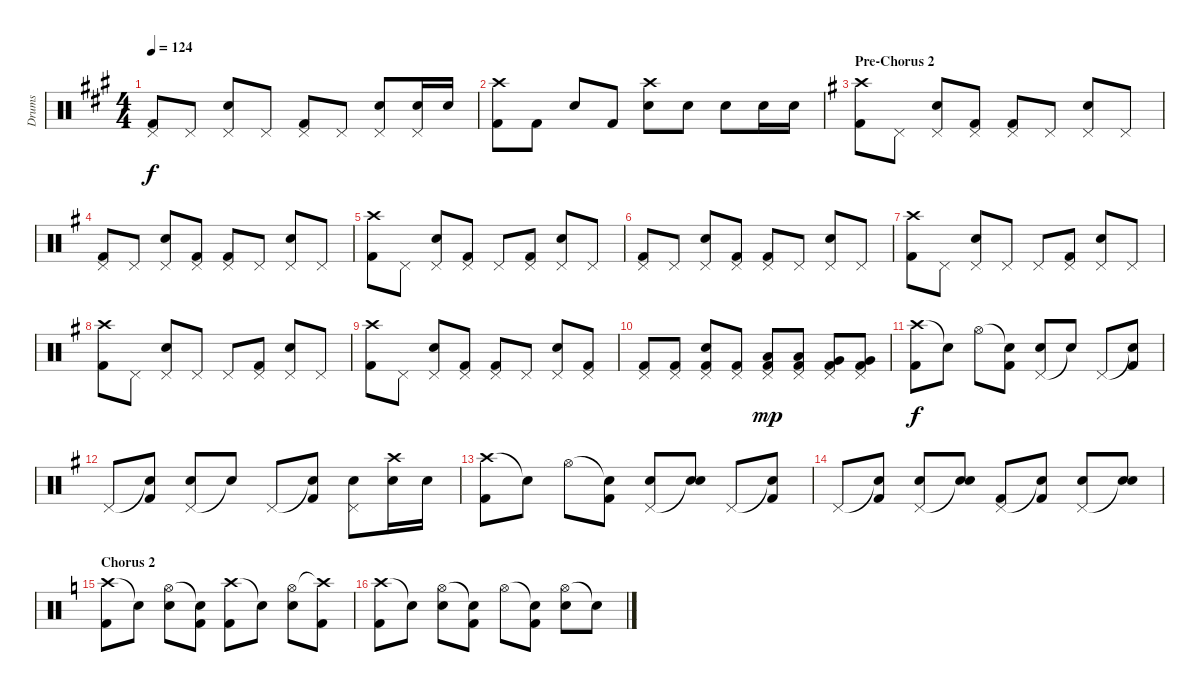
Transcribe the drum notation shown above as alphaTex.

\track ("Drums" "Drums") {instrument percussion}
\staff {score}
\articulation defaults
\ts (4 4)
\tempo 124
\clef neutral
\ks a
("Pedal Hi-Hat (hit)" "Kick (hit) 2").8{dy f} "Pedal Hi-Hat (hit)".8 ("Pedal Hi-Hat (hit)" "Electric Snare (hit)").8 "Pedal Hi-Hat (hit)".8 ("Pedal Hi-Hat (hit)" "Kick (hit) 2").8 "Pedal Hi-Hat (hit)".8 ("Pedal Hi-Hat (hit)" "Electric Snare (hit)").8 ("Pedal Hi-Hat (hit)" "Electric Snare (hit)").16 "Electric Snare (hit)".16 |
("Crash high (hit)" "Kick (hit) 2").8 "Kick (hit) 2".8 "Electric Snare (hit)".8 "Kick (hit) 2".8 ("Crash high (hit)" "Electric Snare (hit)").8 "Electric Snare (hit)".8 "Electric Snare (hit)".8 "Electric Snare (hit)".16 "Electric Snare (hit)".16 |
\section ("" "Pre-Chorus 2")
\ks g
("Crash high (hit)" "Kick (hit) 2").8 "Pedal Hi-Hat (hit)".8 ("Pedal Hi-Hat (hit)" "Electric Snare (hit)").8 ("Pedal Hi-Hat (hit)" "Kick (hit) 2").8 ("Pedal Hi-Hat (hit)" "Kick (hit) 2").8 "Pedal Hi-Hat (hit)".8 ("Pedal Hi-Hat (hit)" "Electric Snare (hit)").8 "Pedal Hi-Hat (hit)".8 |
("Pedal Hi-Hat (hit)" "Kick (hit) 2").8 "Pedal Hi-Hat (hit)".8 ("Pedal Hi-Hat (hit)" "Electric Snare (hit)").8 ("Pedal Hi-Hat (hit)" "Kick (hit) 2").8 ("Pedal Hi-Hat (hit)" "Kick (hit) 2").8 "Pedal Hi-Hat (hit)".8 ("Pedal Hi-Hat (hit)" "Electric Snare (hit)").8 "Pedal Hi-Hat (hit)".8 |
("Crash high (hit)" "Kick (hit) 2").8 "Pedal Hi-Hat (hit)".8 ("Pedal Hi-Hat (hit)" "Electric Snare (hit)").8 ("Pedal Hi-Hat (hit)" "Kick (hit) 2").8 "Pedal Hi-Hat (hit)".8 ("Pedal Hi-Hat (hit)" "Kick (hit) 2").8 ("Pedal Hi-Hat (hit)" "Electric Snare (hit)").8 "Pedal Hi-Hat (hit)".8 |
("Pedal Hi-Hat (hit)" "Kick (hit) 2").8 "Pedal Hi-Hat (hit)".8 ("Pedal Hi-Hat (hit)" "Electric Snare (hit)").8 ("Pedal Hi-Hat (hit)" "Kick (hit) 2").8 ("Pedal Hi-Hat (hit)" "Kick (hit) 2").8 "Pedal Hi-Hat (hit)".8 ("Pedal Hi-Hat (hit)" "Electric Snare (hit)").8 "Pedal Hi-Hat (hit)".8 |
("Crash high (hit)" "Kick (hit) 2").8 "Pedal Hi-Hat (hit)".8 ("Pedal Hi-Hat (hit)" "Electric Snare (hit)").8 "Pedal Hi-Hat (hit)".8 "Pedal Hi-Hat (hit)".8 ("Pedal Hi-Hat (hit)" "Kick (hit) 2").8 ("Pedal Hi-Hat (hit)" "Electric Snare (hit)").8 "Pedal Hi-Hat (hit)".8 |
("Crash high (hit)" "Kick (hit) 2").8 "Pedal Hi-Hat (hit)".8 ("Pedal Hi-Hat (hit)" "Electric Snare (hit)").8 "Pedal Hi-Hat (hit)".8 "Pedal Hi-Hat (hit)".8 ("Pedal Hi-Hat (hit)" "Kick (hit) 2").8 ("Pedal Hi-Hat (hit)" "Electric Snare (hit)").8 "Pedal Hi-Hat (hit)".8 |
("Crash high (hit)" "Kick (hit) 2").8 "Pedal Hi-Hat (hit)".8 ("Pedal Hi-Hat (hit)" "Electric Snare (hit)").8 ("Pedal Hi-Hat (hit)" "Kick (hit) 2").8 ("Pedal Hi-Hat (hit)" "Kick (hit) 2").8 "Pedal Hi-Hat (hit)".8 ("Pedal Hi-Hat (hit)" "Electric Snare (hit)").8 ("Pedal Hi-Hat (hit)" "Kick (hit) 2").8 |
("Pedal Hi-Hat (hit)" "Kick (hit) 2").8 ("Pedal Hi-Hat (hit)" "Kick (hit) 2").8 ("Pedal Hi-Hat (hit)" "Electric Snare (hit)" "Kick (hit) 2").8 ("Pedal Hi-Hat (hit)" "Kick (hit) 2").8 ("Pedal Hi-Hat (hit)" "Low Tom (hit)" "Kick (hit) 2").8{dy mp} ("Pedal Hi-Hat (hit)" "Low Tom (hit)" "Kick (hit) 2").8 ("Pedal Hi-Hat (hit)" "Very Low Tom (hit)" "Kick (hit) 2").8 ("Pedal Hi-Hat (hit)" "Very Low Tom (hit)" "Kick (hit) 2").8 |
("Crash high (hit)" "Kick (hit) 2").8{dy f} "Snare (hit)"{t}.8 "Hi-Hat (open)".8 ("Snare (hit)"{t} "Kick (hit) 2").8 ("Pedal Hi-Hat (hit)" "Electric Snare (hit)").8 "Snare (hit)"{t}.8 "Pedal Hi-Hat (hit)".8 ("Snare (hit)"{t} "Kick (hit) 2").8 |
"Pedal Hi-Hat (hit)".8 ("Snare (hit)"{t} "Kick (hit) 2").8 ("Pedal Hi-Hat (hit)" "Electric Snare (hit)").8 "Snare (hit)"{t}.8 "Pedal Hi-Hat (hit)".8 ("Snare (hit)"{t} "Kick (hit) 2").8 ("Pedal Hi-Hat (hit)" "Electric Snare (hit)").8 ("Crash high (hit)" "Electric Snare (hit)").16 "Electric Snare (hit)".16 |
("Crash high (hit)" "Kick (hit) 2").8 "Snare (hit)"{t}.8 "Hi-Hat (open)".8 ("Snare (hit)"{t} "Kick (hit) 2").8 ("Pedal Hi-Hat (hit)" "Electric Snare (hit)").8 ("Snare (hit)"{t} "Electric Snare (hit)").8 "Pedal Hi-Hat (hit)".8 ("Snare (hit)"{t} "Kick (hit) 2").8 |
"Pedal Hi-Hat (hit)".8 ("Snare (hit)"{t} "Kick (hit) 2").8 ("Pedal Hi-Hat (hit)" "Electric Snare (hit)").8 ("Snare (hit)"{t} "Electric Snare (hit)").8 ("Pedal Hi-Hat (hit)" "Kick (hit) 2").8 ("Snare (hit)"{t} "Kick (hit) 2").8 ("Pedal Hi-Hat (hit)" "Electric Snare (hit)").8 ("Snare (hit)"{t} "Electric Snare (hit)").8 |
\section ("" "Chorus 2")
\ks aminor
("Crash high (hit)" "Kick (hit) 2").8 "Snare (hit)"{t}.8 ("Hi-Hat (open)" "Electric Snare (hit)").8 ("Snare (hit)"{t} "Kick (hit) 2").8 ("Crash high (hit)" "Kick (hit) 2").8 "Snare (hit)"{t}.8 ("Hi-Hat (open)" "Electric Snare (hit)").8 ("Crash high (hit)"{t} "Kick (hit) 2").8 |
("Crash high (hit)" "Kick (hit) 2").8 "Snare (hit)"{t}.8 ("Hi-Hat (open)" "Electric Snare (hit)").8 ("Snare (hit)"{t} "Kick (hit) 2").8 "Hi-Hat (open)".8 ("Snare (hit)"{t} "Kick (hit) 2").8 ("Hi-Hat (open)" "Electric Snare (hit)").8 "Snare (hit)"{t}.8
